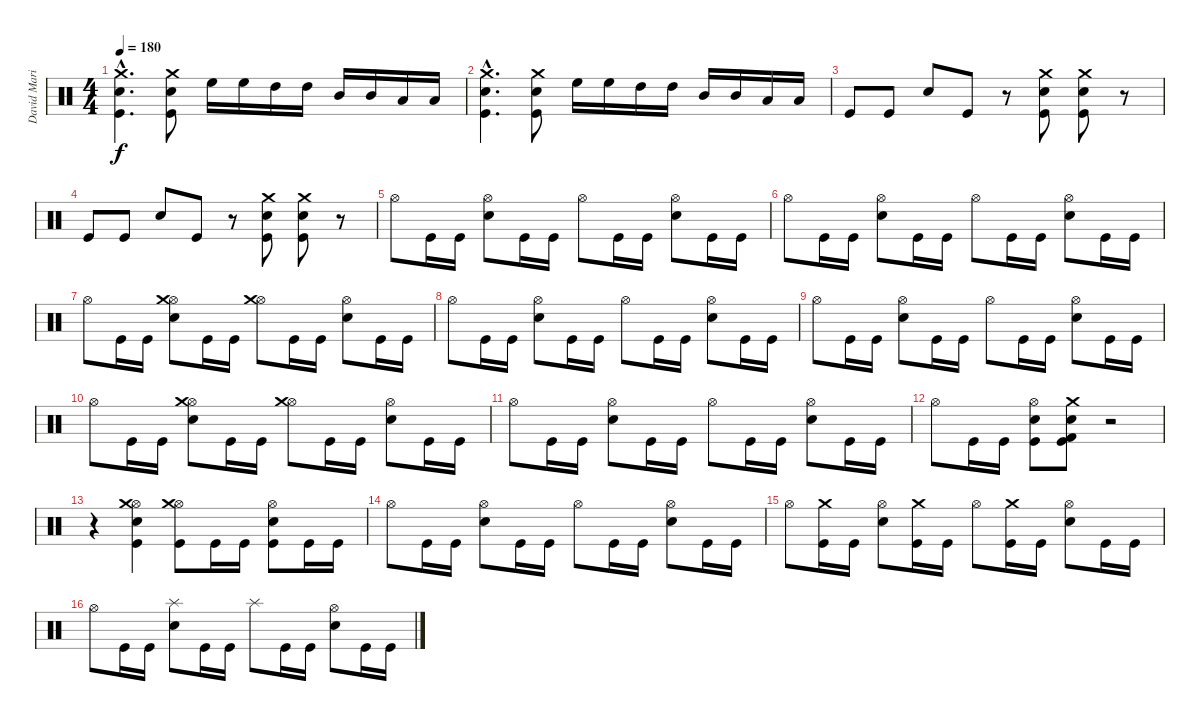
\track ("David Marinero" "David Mari") {instrument percussion}
\staff {score}
\articulation defaults
\ts (4 4)
\tempo 180
\clef neutral
\ks c
("Crash medium (hit)"{hac} "Snare (hit) 2"{hac} "Kick (hit)"{hac}).4{d dy f} ("Crash medium (hit)" "Snare (hit) 2" "Kick (hit)").8 "High Floor Tom (hit)".16 "High Floor Tom (hit)".16 "High Tom (hit)".16 "High Tom (hit)".16 "Mid Tom (hit)".16 "Mid Tom (hit)".16 "Low Tom (hit)".16 "Low Tom (hit)".16 |
("Crash medium (hit)"{hac} "Snare (hit) 2"{hac} "Kick (hit)"{hac}).4{d} ("Crash medium (hit)" "Snare (hit) 2" "Kick (hit)").8 "High Floor Tom (hit)".16 "High Floor Tom (hit)".16 "High Tom (hit)".16 "High Tom (hit)".16 "Mid Tom (hit)".16 "Mid Tom (hit)".16 "Low Tom (hit)".16 "Low Tom (hit)".16 |
"Kick (hit)".8 "Kick (hit)".8 "Snare (hit) 2".8 "Kick (hit)".8 r.8 ("Crash medium (hit)" "Snare (hit) 2" "Kick (hit)").8 ("Crash medium (hit)" "Snare (hit) 2" "Kick (hit)").8 r.8 |
"Kick (hit)".8 "Kick (hit)".8 "Snare (hit) 2".8 "Kick (hit)".8 r.8 ("Crash medium (hit)" "Snare (hit) 2" "Kick (hit)").8 ("Crash medium (hit)" "Snare (hit) 2" "Kick (hit)").8 r.8 |
"Hi-Hat (open)".8 "Kick (hit)".16 "Kick (hit)".16 ("Hi-Hat (open)" "Snare (hit) 2").8 "Kick (hit)".16 "Kick (hit)".16 "Hi-Hat (open)".8 "Kick (hit)".16 "Kick (hit)".16 ("Hi-Hat (open)" "Snare (hit) 2").8 "Kick (hit)".16 "Kick (hit)".16 |
"Hi-Hat (open)".8 "Kick (hit)".16 "Kick (hit)".16 ("Hi-Hat (open)" "Snare (hit) 2").8 "Kick (hit)".16 "Kick (hit)".16 "Hi-Hat (open)".8 "Kick (hit)".16 "Kick (hit)".16 ("Hi-Hat (open)" "Snare (hit) 2").8 "Kick (hit)".16 "Kick (hit)".16 |
"Hi-Hat (open)".8 "Kick (hit)".16 "Kick (hit)".16 ("Hi-Hat (open)" "Snare (hit) 2" "Crash medium (hit)").8 "Kick (hit)".16 "Kick (hit)".16 ("Hi-Hat (open)" "Crash medium (hit)").8 "Kick (hit)".16 "Kick (hit)".16 ("Hi-Hat (open)" "Snare (hit) 2").8 "Kick (hit)".16 "Kick (hit)".16 |
"Hi-Hat (open)".8 "Kick (hit)".16 "Kick (hit)".16 ("Hi-Hat (open)" "Snare (hit) 2").8 "Kick (hit)".16 "Kick (hit)".16 "Hi-Hat (open)".8 "Kick (hit)".16 "Kick (hit)".16 ("Hi-Hat (open)" "Snare (hit) 2").8 "Kick (hit)".16 "Kick (hit)".16 |
"Hi-Hat (open)".8 "Kick (hit)".16 "Kick (hit)".16 ("Hi-Hat (open)" "Snare (hit) 2").8 "Kick (hit)".16 "Kick (hit)".16 "Hi-Hat (open)".8 "Kick (hit)".16 "Kick (hit)".16 ("Hi-Hat (open)" "Snare (hit) 2").8 "Kick (hit)".16 "Kick (hit)".16 |
"Hi-Hat (open)".8 "Kick (hit)".16 "Kick (hit)".16 ("Hi-Hat (open)" "Snare (hit) 2" "Crash medium (hit)").8 "Kick (hit)".16 "Kick (hit)".16 ("Hi-Hat (open)" "Crash medium (hit)").8 "Kick (hit)".16 "Kick (hit)".16 ("Hi-Hat (open)" "Snare (hit) 2").8 "Kick (hit)".16 "Kick (hit)".16 |
"Hi-Hat (open)".8 "Kick (hit)".16 "Kick (hit)".16 ("Hi-Hat (open)" "Snare (hit) 2").8 "Kick (hit)".16 "Kick (hit)".16 "Hi-Hat (open)".8 "Kick (hit)".16 "Kick (hit)".16 ("Hi-Hat (open)" "Snare (hit) 2").8 "Kick (hit)".16 "Kick (hit)".16 |
"Hi-Hat (open)".8 "Kick (hit)".16 "Kick (hit)".16 ("Hi-Hat (open)" "Snare (hit) 2" "Kick (hit)").8 ("Kick (hit) 2" "Snare (hit) 2" "Crash medium (hit)" "Kick (hit)").8 r.2 |
r.4 ("Hi-Hat (open)" "Snare (hit) 2" "Crash medium (hit)" "Kick (hit)").4 ("Hi-Hat (open)" "Crash medium (hit)" "Kick (hit)").8 "Kick (hit)".16 "Kick (hit)".16 ("Hi-Hat (open)" "Snare (hit) 2" "Kick (hit)").8 "Kick (hit)".16 "Kick (hit)".16 |
"Hi-Hat (open)".8 "Kick (hit)".16 "Kick (hit)".16 ("Hi-Hat (open)" "Snare (hit) 2").8 "Kick (hit)".16 "Kick (hit)".16 "Hi-Hat (open)".8 "Kick (hit)".16 "Kick (hit)".16 ("Hi-Hat (open)" "Snare (hit) 2").8 "Kick (hit)".16 "Kick (hit)".16 |
"Hi-Hat (open)".8 ("Crash medium (hit)" "Kick (hit)").16 "Kick (hit)".16 ("Hi-Hat (open)" "Snare (hit) 2").8 ("Crash medium (hit)" "Kick (hit)").16 "Kick (hit)".16 "Hi-Hat (open)".8 ("Crash medium (hit)" "Kick (hit)").16 "Kick (hit)".16 ("Hi-Hat (open)" "Snare (hit) 2").8 "Kick (hit)".16 "Kick (hit)".16 |
"Hi-Hat (open)".8 "Kick (hit)".16 "Kick (hit)".16 ("Splash (hit)" "Snare (hit) 2").8 "Kick (hit)".16 "Kick (hit)".16 "Splash (hit)".8 "Kick (hit)".16 "Kick (hit)".16 ("Hi-Hat (open)" "Snare (hit) 2").8 "Kick (hit)".16 "Kick (hit)".16
